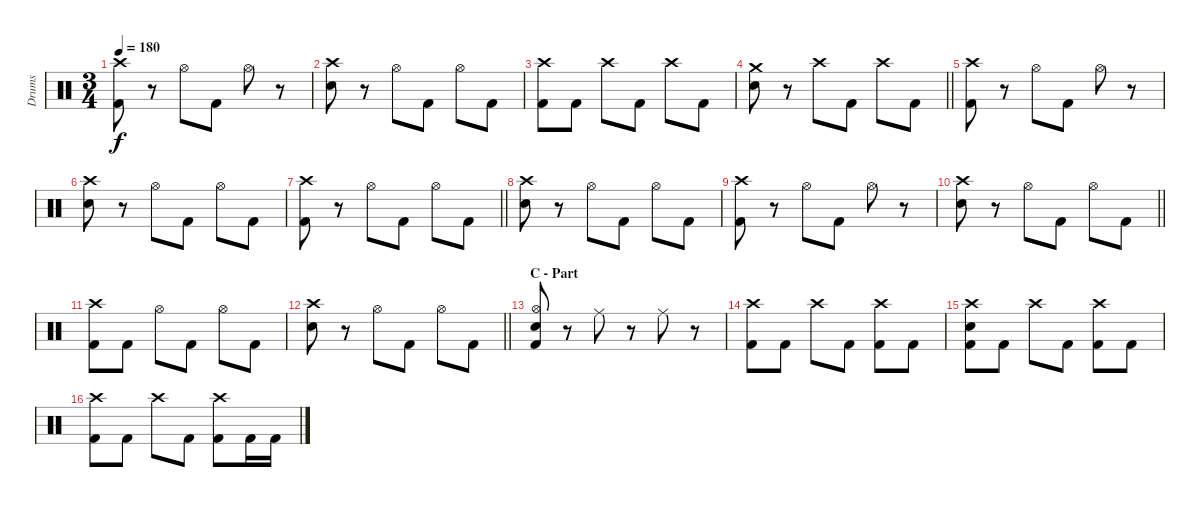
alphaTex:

\track ("Drums" "Drums") {instrument percussion}
\staff {score}
\articulation defaults
\ts (3 4)
\tempo 180
\clef neutral
\ks c
("Crash high (hit)" "Kick (hit) 2").8{dy f} r.8 "Hi-Hat (open)".8 "Kick (hit) 2".8 "Hi-Hat (open)".8 r.8 |
("Crash high (hit)" "Electric Snare (hit)").8 r.8 "Hi-Hat (open)".8 "Kick (hit) 2".8 "Hi-Hat (open)".8 "Kick (hit) 2".8 |
("Crash high (hit)" "Kick (hit) 2").8 "Kick (hit) 2".8 "Crash high (hit)".8 "Kick (hit) 2".8 "Crash high (hit)".8 "Kick (hit) 2".8 |
\barLineRight lightlight
("Crash medium (hit)" "Electric Snare (hit)").8 r.8 "Crash high (hit)".8 "Kick (hit) 2".8 "Crash high (hit)".8 "Kick (hit) 2".8 |
("Crash high (hit)" "Kick (hit) 2").8 r.8 "Hi-Hat (open)".8 "Kick (hit) 2".8 "Hi-Hat (open)".8 r.8 |
("Crash high (hit)" "Electric Snare (hit)").8 r.8 "Hi-Hat (open)".8 "Kick (hit) 2".8 "Hi-Hat (open)".8 "Kick (hit) 2".8 |
\barLineRight lightlight
("Crash high (hit)" "Kick (hit) 2").8 r.8 "Hi-Hat (open)".8 "Kick (hit) 2".8 "Hi-Hat (open)".8 "Kick (hit) 2".8 |
("Crash high (hit)" "Electric Snare (hit)").8 r.8 "Hi-Hat (open)".8 "Kick (hit) 2".8 "Hi-Hat (open)".8 "Kick (hit) 2".8 |
("Crash high (hit)" "Kick (hit) 2").8 r.8 "Hi-Hat (open)".8 "Kick (hit) 2".8 "Hi-Hat (open)".8 r.8 |
\barLineRight lightlight
("Crash high (hit)" "Electric Snare (hit)").8 r.8 "Hi-Hat (open)".8 "Kick (hit) 2".8 "Hi-Hat (open)".8 "Kick (hit) 2".8 |
("Crash high (hit)" "Kick (hit) 2").8 "Kick (hit) 2".8 "Hi-Hat (open)".8 "Kick (hit) 2".8 "Hi-Hat (open)".8 "Kick (hit) 2".8 |
\barLineRight lightlight
("Crash high (hit)" "Electric Snare (hit)").8 r.8 "Hi-Hat (open)".8 "Kick (hit) 2".8 "Hi-Hat (open)".8 "Kick (hit) 2".8 |
\section ("" "C - Part")
("Hi-Hat (open)" "Electric Snare (hit)" "Kick (hit) 2").8 r.8 "Ride (middle)".8 r.8 "Ride (middle)".8 r.8 |
("Crash high (hit)" "Kick (hit) 2").8 "Kick (hit) 2".8 "Crash high (hit)".8 "Kick (hit) 2".8 ("Crash high (hit)" "Kick (hit) 2").8 "Kick (hit) 2".8 |
("Crash high (hit)" "Electric Snare (hit)" "Kick (hit) 2").8 "Kick (hit) 2".8 "Crash high (hit)".8 "Kick (hit) 2".8 ("Crash high (hit)" "Kick (hit) 2").8 "Kick (hit) 2".8 |
("Crash high (hit)" "Kick (hit) 2").8 "Kick (hit) 2".8 "Crash high (hit)".8 "Kick (hit) 2".8 ("Crash high (hit)" "Kick (hit) 2").8 "Kick (hit) 2".16 "Kick (hit) 2".16
